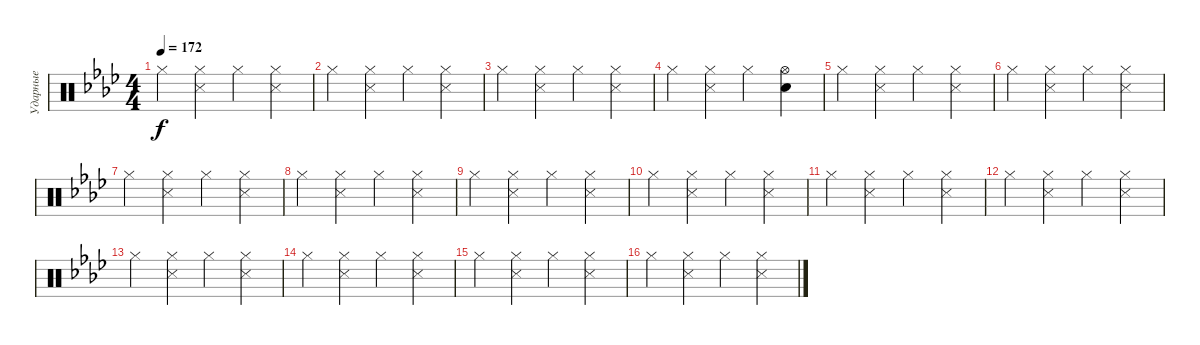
\track ("Ударные" "Ударные") {instrument percussion}
\staff {score}
\articulation defaults
\ts (4 4)
\tempo 172
\clef neutral
\ks ab "Hi-Hat (closed)".4{dy f}
("Hi-Hat (closed)" "Snare (side stick) 3").4 "Hi-Hat (closed)".4 ("Hi-Hat (closed)" "Snare (side stick) 3").4 |
"Hi-Hat (closed)".4 ("Hi-Hat (closed)" "Snare (side stick) 3").4 "Hi-Hat (closed)".4 ("Hi-Hat (closed)" "Snare (side stick) 3").4 |
"Hi-Hat (closed)".4 ("Hi-Hat (closed)" "Snare (side stick) 3").4 "Hi-Hat (closed)".4 ("Hi-Hat (closed)" "Snare (side stick) 3").4 |
"Hi-Hat (closed)".4 ("Hi-Hat (closed)" "Snare (side stick) 3").4 "Hi-Hat (closed)".4 ("Hi-Hat (open)" "Electric Snare (hit)").4 |
"Hi-Hat (closed)".4 ("Hi-Hat (closed)" "Snare (side stick) 3").4 "Hi-Hat (closed)".4 ("Hi-Hat (closed)" "Snare (side stick) 3").4 |
"Hi-Hat (closed)".4 ("Hi-Hat (closed)" "Snare (side stick) 3").4 "Hi-Hat (closed)".4 ("Hi-Hat (closed)" "Snare (side stick) 3").4 |
"Hi-Hat (closed)".4 ("Hi-Hat (closed)" "Snare (side stick) 3").4 "Hi-Hat (closed)".4 ("Hi-Hat (closed)" "Snare (side stick) 3").4 |
"Hi-Hat (closed)".4 ("Hi-Hat (closed)" "Snare (side stick) 3").4 "Hi-Hat (closed)".4 ("Hi-Hat (closed)" "Snare (side stick) 3").4 |
"Hi-Hat (closed)".4 ("Hi-Hat (closed)" "Snare (side stick) 3").4 "Hi-Hat (closed)".4 ("Hi-Hat (closed)" "Snare (side stick) 3").4 |
"Hi-Hat (closed)".4 ("Hi-Hat (closed)" "Snare (side stick) 3").4 "Hi-Hat (closed)".4 ("Hi-Hat (closed)" "Snare (side stick) 3").4 |
"Hi-Hat (closed)".4 ("Hi-Hat (closed)" "Snare (side stick) 3").4 "Hi-Hat (closed)".4 ("Hi-Hat (closed)" "Snare (side stick) 3").4 |
"Hi-Hat (closed)".4 ("Hi-Hat (closed)" "Snare (side stick) 3").4 "Hi-Hat (closed)".4 ("Hi-Hat (closed)" "Snare (side stick) 3").4 |
"Hi-Hat (closed)".4 ("Hi-Hat (closed)" "Snare (side stick) 3").4 "Hi-Hat (closed)".4 ("Hi-Hat (closed)" "Snare (side stick) 3").4 |
"Hi-Hat (closed)".4 ("Hi-Hat (closed)" "Snare (side stick) 3").4 "Hi-Hat (closed)".4 ("Hi-Hat (closed)" "Snare (side stick) 3").4 |
"Hi-Hat (closed)".4 ("Hi-Hat (closed)" "Snare (side stick) 3").4 "Hi-Hat (closed)".4 ("Hi-Hat (closed)" "Snare (side stick) 3").4 |
"Hi-Hat (closed)".4 ("Hi-Hat (closed)" "Snare (side stick) 3").4 "Hi-Hat (closed)".4 ("Hi-Hat (closed)" "Snare (side stick) 3").4
